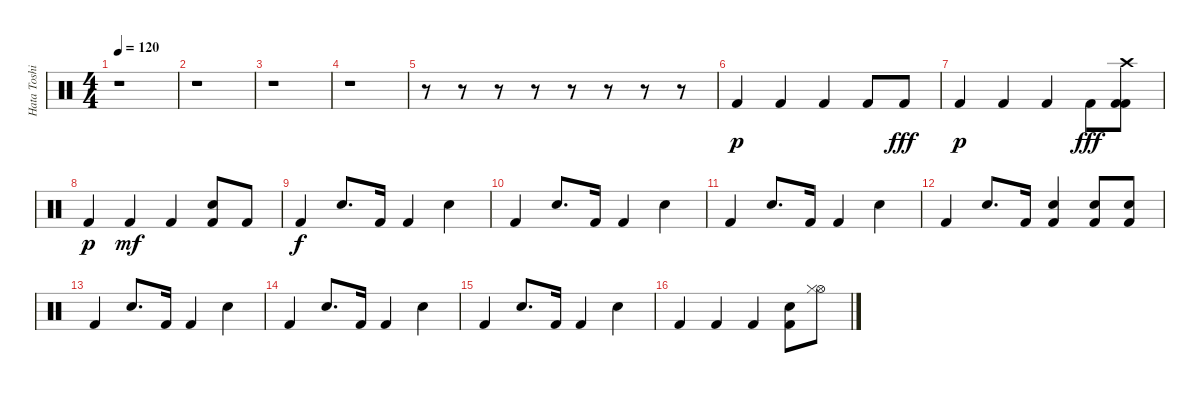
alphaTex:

\track ("Hata Toshiki" "Hata Toshi") {instrument percussion}
\staff {score}
\articulation defaults
\ts (4 4)
\tempo 120
\clef neutral
\ks c
r.1{dy p} |
r.1 |
r.1 |
r.1 |
r.8 r.8 r.8 r.8 r.8 r.8 r.8 r.8 |
"Kick (hit) 2".4 "Kick (hit) 2".4 "Kick (hit) 2".4 "Kick (hit) 2".8 "Kick (hit) 2".8{dy fff} |
"Kick (hit) 2".4{dy p} "Kick (hit) 2".4 "Kick (hit) 2".4 "Kick (hit) 2".8{dy fff} ("Crash high (hit)" "Kick (hit) 2" "Kick (hit) 2").8 |
"Kick (hit) 2".4{dy p} "Kick (hit) 2".4{dy mf} "Kick (hit) 2".4 ("Electric Snare (hit)" "Kick (hit) 2").8 "Kick (hit) 2".8 |
"Kick (hit) 2".4{dy f} "Electric Snare (hit)".8{d} "Kick (hit) 2".16 "Kick (hit) 2".4 "Electric Snare (hit)".4 |
"Kick (hit) 2".4 "Electric Snare (hit)".8{d} "Kick (hit) 2".16 "Kick (hit) 2".4 "Electric Snare (hit)".4 |
"Kick (hit) 2".4 "Electric Snare (hit)".8{d} "Kick (hit) 2".16 "Kick (hit) 2".4 "Electric Snare (hit)".4 |
"Kick (hit) 2".4 "Electric Snare (hit)".8{d} "Kick (hit) 2".16 ("Electric Snare (hit)" "Kick (hit) 2").4 ("Electric Snare (hit)" "Kick (hit) 2").8 ("Electric Snare (hit)" "Kick (hit) 2").8 |
"Kick (hit) 2".4 "Electric Snare (hit)".8{d} "Kick (hit) 2".16 "Kick (hit) 2".4 "Electric Snare (hit)".4 |
"Kick (hit) 2".4 "Electric Snare (hit)".8{d} "Kick (hit) 2".16 "Kick (hit) 2".4 "Electric Snare (hit)".4 |
"Kick (hit) 2".4 "Electric Snare (hit)".8{d} "Kick (hit) 2".16 "Kick (hit) 2".4 "Electric Snare (hit)".4 |
"Kick (hit) 2".4 "Kick (hit) 2".4 "Kick (hit) 2".4 ("Electric Snare (hit)" "Kick (hit) 2").8 ("Hi-Hat (open)" "Hi-Hat (closed)").8
